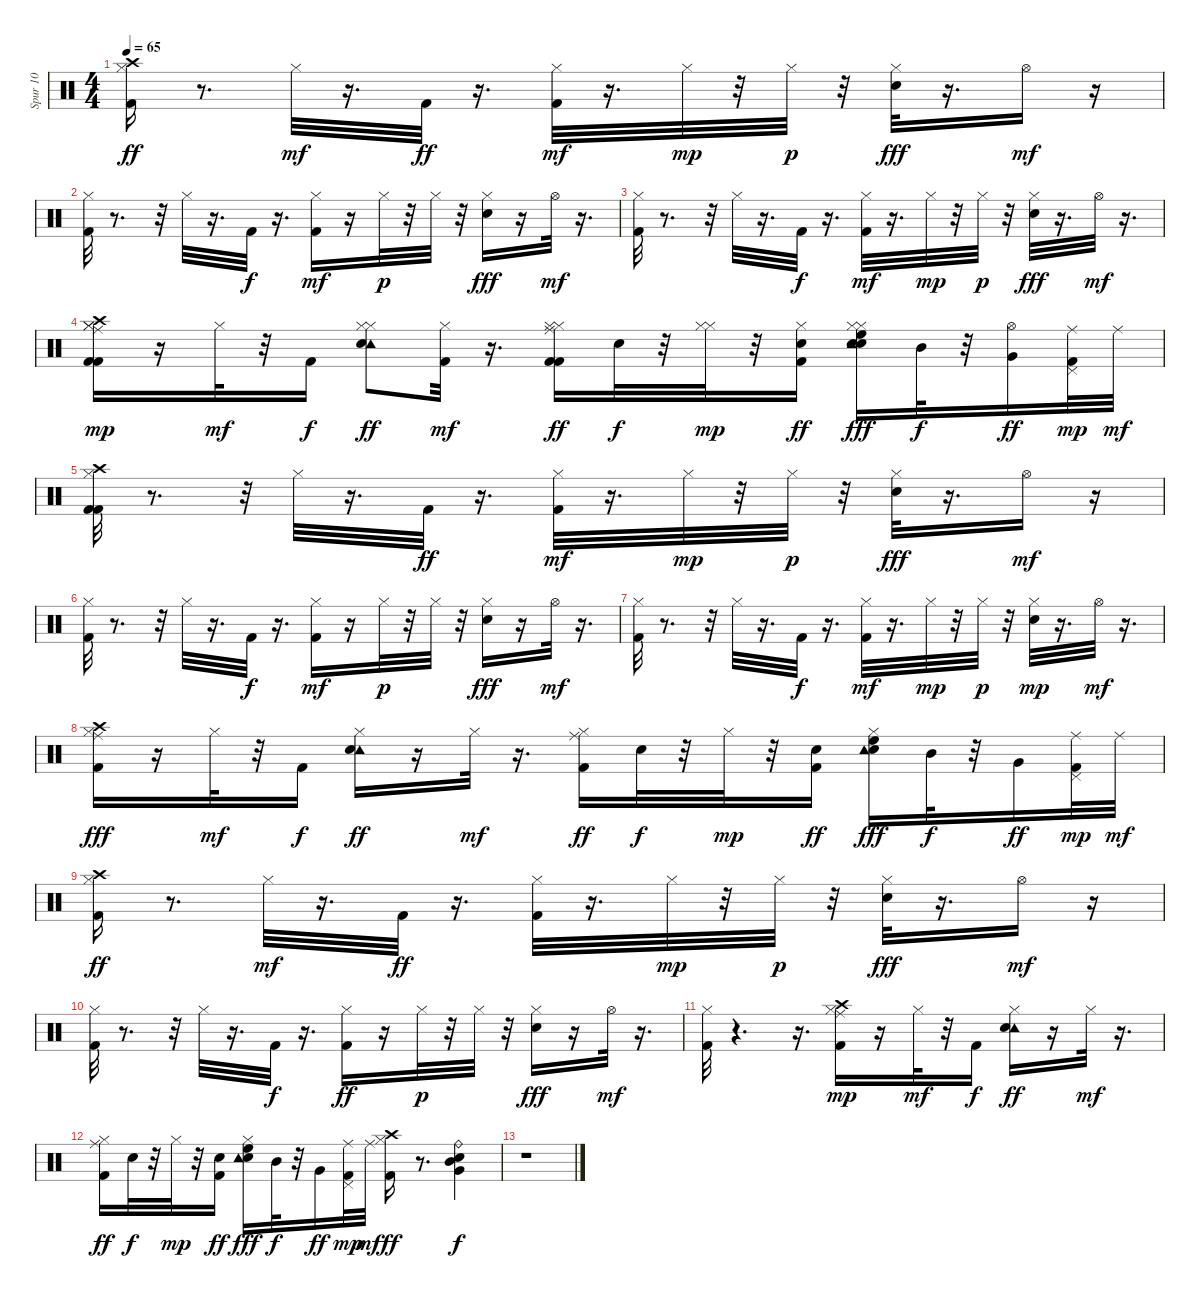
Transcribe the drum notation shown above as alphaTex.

\track ("Spur 10" "Spur 10") {instrument percussion}
\staff {score}
\articulation defaults
\ts (4 4)
\tempo 65
\clef neutral
\ks c
("Hi-Hat (closed)" "Kick (hit) 2" "Crash high (hit)").16{dy ff} r.8{d} "Hi-Hat (closed)".32{dy mf} r.16{d} "Kick (hit) 2".32{dy ff} r.16{d} ("Kick (hit) 2" "Hi-Hat (closed)").32{dy mf} r.16{d} "Hi-Hat (closed)".32{dy mp} r.32 "Hi-Hat (closed)".32{dy p} r.32 ("Hi-Hat (closed)" "Snare (hit) 2").32{dy fff} r.16{d} "Hi-Hat (open)".16{dy mf} r.16 |
("Kick (hit) 2" "Hi-Hat (closed)").32 r.8{d} r.32 "Hi-Hat (closed)".32 r.16{d} "Kick (hit) 2".32{dy f} r.16{d} ("Kick (hit) 2" "Hi-Hat (closed)").16{dy mf} r.16 "Hi-Hat (closed)".32{dy p} r.32 "Hi-Hat (closed)".32 r.32 ("Hi-Hat (closed)" "Snare (hit) 2").16{dy fff} r.16 "Hi-Hat (open)".32{dy mf} r.16{d} |
("Kick (hit) 2" "Hi-Hat (closed)").32 r.8{d} r.32 "Hi-Hat (closed)".32 r.16{d} "Kick (hit) 2".32{dy f} r.16{d} ("Kick (hit) 2" "Hi-Hat (closed)").32{dy mf} r.16{d} "Hi-Hat (closed)".32{dy mp} r.32 "Hi-Hat (closed)".32{dy p} r.32 ("Hi-Hat (closed)" "Snare (hit) 2").32{dy fff} r.16{d} "Hi-Hat (open)".32{dy mf} r.16{d} |
("Kick (hit) 2" "Hi-Hat (closed)" "Crash high (hit)" "Ride (middle)" "Kick (hit) 2" "Hi-Hat (closed)").16{dy mp} r.16 "Hi-Hat (closed)".32{dy mf} r.32 "Kick (hit) 2".16{dy f} ("Hi-Hat (closed)" "Tambourine (hit)" "Hi-Hat (closed)" "Electric Snare (hit)").8{dy ff} ("Kick (hit) 2" "Hi-Hat (closed)").32{dy mf} r.16{d} ("Ride (middle)" "Hi-Hat (closed)" "Kick (hit) 2" "Hi-Hat (closed)" "Kick (hit) 2").16{dy ff} "Electric Snare (hit)".32{dy f} r.32 ("Hi-Hat (closed)" "Hi-Hat (closed)").32{dy mp} r.32 ("Kick (hit) 2" "Hi-Hat (closed)" "Electric Snare (hit)").16{dy ff} ("High Floor Tom (hit)" "Hi-Hat (closed)" "Electric Snare (hit)" "Hi-Hat (closed)" "Tambourine (hit)" "Snare (hit) 2").16{dy fff} "Mid Tom (hit)".32{dy f} r.32 ("Hi-Hat (open)" "Very Low Tom (hit)").16{dy ff} ("Pedal Hi-Hat (hit)" "Ride (middle)" "Kick (hit) 2").32{dy mp} "Ride (middle)".32{dy mf} |
("Kick (hit) 2" "Hi-Hat (closed)" "Crash high (hit)" "Kick (hit) 2").32 r.8{d} r.32 "Hi-Hat (closed)".32 r.16{d} "Kick (hit) 2".32{dy ff} r.16{d} ("Kick (hit) 2" "Hi-Hat (closed)").32{dy mf} r.16{d} "Hi-Hat (closed)".32{dy mp} r.32 "Hi-Hat (closed)".32{dy p} r.32 ("Hi-Hat (closed)" "Snare (hit) 2").32{dy fff} r.16{d} "Hi-Hat (open)".16{dy mf} r.16 |
("Kick (hit) 2" "Hi-Hat (closed)").32 r.8{d} r.32 "Hi-Hat (closed)".32 r.16{d} "Kick (hit) 2".32{dy f} r.16{d} ("Kick (hit) 2" "Hi-Hat (closed)").16{dy mf} r.16 "Hi-Hat (closed)".32{dy p} r.32 "Hi-Hat (closed)".32 r.32 ("Hi-Hat (closed)" "Snare (hit) 2").16{dy fff} r.16 "Hi-Hat (open)".32{dy mf} r.16{d} |
("Kick (hit) 2" "Hi-Hat (closed)").32 r.8{d} r.32 "Hi-Hat (closed)".32 r.16{d} "Kick (hit) 2".32{dy f} r.16{d} ("Kick (hit) 2" "Hi-Hat (closed)").32{dy mf} r.16{d} "Hi-Hat (closed)".32{dy mp} r.32 "Hi-Hat (closed)".32{dy p} r.32 ("Snare (hit) 2" "Hi-Hat (closed)").32{dy mp} r.16{d} "Hi-Hat (open)".32{dy mf} r.16{d} |
("Ride (middle)" "Kick (hit) 2" "Hi-Hat (closed)" "Crash high (hit)").16{dy fff} r.16 "Hi-Hat (closed)".32{dy mf} r.32 "Kick (hit) 2".16{dy f} ("Hi-Hat (closed)" "Tambourine (hit)" "Electric Snare (hit)").16{dy ff} r.16 "Hi-Hat (closed)".32{dy mf} r.16{d} ("Hi-Hat (closed)" "Ride (middle)" "Kick (hit) 2").16{dy ff} "Electric Snare (hit)".32{dy f} r.32 "Hi-Hat (closed)".32{dy mp} r.32 ("Kick (hit) 2" "Electric Snare (hit)").16{dy ff} ("High Floor Tom (hit)" "Hi-Hat (closed)" "Electric Snare (hit)" "Tambourine (hit)").16{dy fff} "Mid Tom (hit)".32{dy f} r.32 "Very Low Tom (hit)".16{dy ff} ("Pedal Hi-Hat (hit)" "Kick (hit) 2" "Ride (middle)").32{dy mp} "Ride (middle)".32{dy mf} |
("Hi-Hat (closed)" "Kick (hit) 2" "Crash high (hit)").16{dy ff} r.8{d} "Hi-Hat (closed)".32{dy mf} r.16{d} "Kick (hit) 2".32{dy ff} r.16{d} ("Hi-Hat (closed)" "Kick (hit) 2").32 r.16{d} "Hi-Hat (closed)".32{dy mp} r.32 "Hi-Hat (closed)".32{dy p} r.32 ("Hi-Hat (closed)" "Snare (hit) 2").32{dy fff} r.16{d} "Hi-Hat (open)".16{dy mf} r.16 |
("Kick (hit) 2" "Hi-Hat (closed)").32 r.8{d} r.32 "Hi-Hat (closed)".32 r.16{d} "Kick (hit) 2".32{dy f} r.16{d} ("Hi-Hat (closed)" "Kick (hit) 2").16{dy ff} r.16 "Hi-Hat (closed)".32{dy p} r.32 "Hi-Hat (closed)".32 r.32 ("Hi-Hat (closed)" "Snare (hit) 2").16{dy fff} r.16 "Hi-Hat (open)".32{dy mf} r.16{d} |
("Kick (hit) 2" "Hi-Hat (closed)").32 r.4{d} r.16{d} ("Ride (middle)" "Crash high (hit)" "Hi-Hat (closed)" "Kick (hit) 2").16{dy mp} r.16 "Hi-Hat (closed)".32{dy mf} r.32 "Kick (hit) 2".16{dy f} ("Hi-Hat (closed)" "Tambourine (hit)" "Electric Snare (hit)").16{dy ff} r.16 "Hi-Hat (closed)".32{dy mf} r.16{d} |
("Ride (middle)" "Hi-Hat (closed)" "Kick (hit) 2").16{dy ff} "Electric Snare (hit)".32{dy f} r.32 "Hi-Hat (closed)".32{dy mp} r.32 ("Kick (hit) 2" "Electric Snare (hit)").16{dy ff} ("High Floor Tom (hit)" "Hi-Hat (closed)" "Electric Snare (hit)" "Tambourine (hit)").16{dy fff} "Mid Tom (hit)".32{dy f} r.32 "Very Low Tom (hit)".16{dy ff} ("Pedal Hi-Hat (hit)" "Kick (hit) 2" "Ride (middle)").32{dy mp} "Ride (middle)".32{dy mf} ("Kick (hit) 2" "Hi-Hat (closed)" "Crash high (hit)").16{dy ff} r.8{d} ("Ride (bell)" "Mid Tom (hit)" "Electric Snare (hit)" "Very Low Tom (hit)").4{dy f} |
r.1
